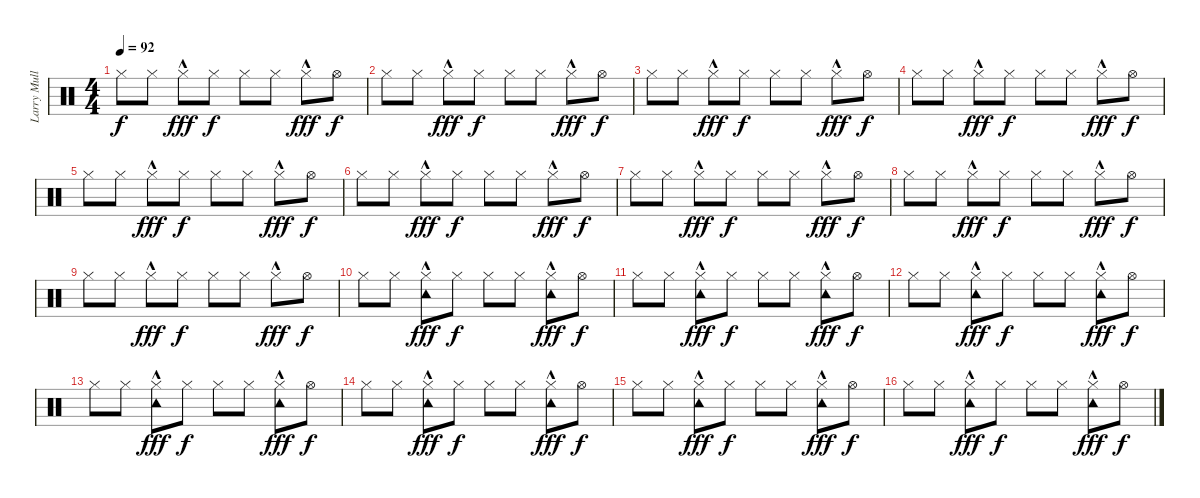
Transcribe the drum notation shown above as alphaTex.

\track ("Larry Mullen Junior" "Larry Mull") {instrument percussion}
\staff {score}
\articulation defaults
\ts (4 4)
\tempo 92
\clef neutral
\ks c "Hi-Hat (closed)".8{dy f} "Hi-Hat (closed)".8 "Hi-Hat (closed)"{hac}.8{dy fff} "Hi-Hat (closed)".8{dy f} "Hi-Hat (closed)".8 "Hi-Hat (closed)".8 "Hi-Hat (closed)"{hac}.8{dy fff} "Hi-Hat (open)".8{dy f}
|
"Hi-Hat (closed)".8 "Hi-Hat (closed)".8 "Hi-Hat (closed)"{hac}.8{dy fff} "Hi-Hat (closed)".8{dy f} "Hi-Hat (closed)".8 "Hi-Hat (closed)".8 "Hi-Hat (closed)"{hac}.8{dy fff} "Hi-Hat (open)".8{dy f} |
"Hi-Hat (closed)".8 "Hi-Hat (closed)".8 "Hi-Hat (closed)"{hac}.8{dy fff} "Hi-Hat (closed)".8{dy f} "Hi-Hat (closed)".8 "Hi-Hat (closed)".8 "Hi-Hat (closed)"{hac}.8{dy fff} "Hi-Hat (open)".8{dy f} |
"Hi-Hat (closed)".8 "Hi-Hat (closed)".8 "Hi-Hat (closed)"{hac}.8{dy fff} "Hi-Hat (closed)".8{dy f} "Hi-Hat (closed)".8 "Hi-Hat (closed)".8 "Hi-Hat (closed)"{hac}.8{dy fff} "Hi-Hat (open)".8{dy f} |
"Hi-Hat (closed)".8 "Hi-Hat (closed)".8 "Hi-Hat (closed)"{hac}.8{dy fff} "Hi-Hat (closed)".8{dy f} "Hi-Hat (closed)".8 "Hi-Hat (closed)".8 "Hi-Hat (closed)"{hac}.8{dy fff} "Hi-Hat (open)".8{dy f} |
"Hi-Hat (closed)".8 "Hi-Hat (closed)".8 "Hi-Hat (closed)"{hac}.8{dy fff} "Hi-Hat (closed)".8{dy f} "Hi-Hat (closed)".8 "Hi-Hat (closed)".8 "Hi-Hat (closed)"{hac}.8{dy fff} "Hi-Hat (open)".8{dy f} |
"Hi-Hat (closed)".8 "Hi-Hat (closed)".8 "Hi-Hat (closed)"{hac}.8{dy fff} "Hi-Hat (closed)".8{dy f} "Hi-Hat (closed)".8 "Hi-Hat (closed)".8 "Hi-Hat (closed)"{hac}.8{dy fff} "Hi-Hat (open)".8{dy f} |
"Hi-Hat (closed)".8 "Hi-Hat (closed)".8 "Hi-Hat (closed)"{hac}.8{dy fff} "Hi-Hat (closed)".8{dy f} "Hi-Hat (closed)".8 "Hi-Hat (closed)".8 "Hi-Hat (closed)"{hac}.8{dy fff} "Hi-Hat (open)".8{dy f} |
"Hi-Hat (closed)".8 "Hi-Hat (closed)".8 "Hi-Hat (closed)"{hac}.8{dy fff} "Hi-Hat (closed)".8{dy f} "Hi-Hat (closed)".8 "Hi-Hat (closed)".8 "Hi-Hat (closed)"{hac}.8{dy fff} "Hi-Hat (open)".8{dy f} |
"Hi-Hat (closed)".8 "Hi-Hat (closed)".8 ("Hi-Hat (closed)"{hac} "Tambourine (hit)").8{dy fff} "Hi-Hat (closed)".8{dy f} "Hi-Hat (closed)".8 "Hi-Hat (closed)".8 ("Hi-Hat (closed)"{hac} "Tambourine (hit)").8{dy fff} "Hi-Hat (open)".8{dy f} |
"Hi-Hat (closed)".8 "Hi-Hat (closed)".8 ("Hi-Hat (closed)"{hac} "Tambourine (hit)").8{dy fff} "Hi-Hat (closed)".8{dy f} "Hi-Hat (closed)".8 "Hi-Hat (closed)".8 ("Hi-Hat (closed)"{hac} "Tambourine (hit)").8{dy fff} "Hi-Hat (open)".8{dy f} |
"Hi-Hat (closed)".8 "Hi-Hat (closed)".8 ("Hi-Hat (closed)"{hac} "Tambourine (hit)").8{dy fff} "Hi-Hat (closed)".8{dy f} "Hi-Hat (closed)".8 "Hi-Hat (closed)".8 ("Hi-Hat (closed)"{hac} "Tambourine (hit)").8{dy fff} "Hi-Hat (open)".8{dy f} |
"Hi-Hat (closed)".8 "Hi-Hat (closed)".8 ("Hi-Hat (closed)"{hac} "Tambourine (hit)").8{dy fff} "Hi-Hat (closed)".8{dy f} "Hi-Hat (closed)".8 "Hi-Hat (closed)".8 ("Hi-Hat (closed)"{hac} "Tambourine (hit)").8{dy fff} "Hi-Hat (open)".8{dy f} |
"Hi-Hat (closed)".8 "Hi-Hat (closed)".8 ("Hi-Hat (closed)"{hac} "Tambourine (hit)").8{dy fff} "Hi-Hat (closed)".8{dy f} "Hi-Hat (closed)".8 "Hi-Hat (closed)".8 ("Hi-Hat (closed)"{hac} "Tambourine (hit)").8{dy fff} "Hi-Hat (open)".8{dy f} |
"Hi-Hat (closed)".8 "Hi-Hat (closed)".8 ("Hi-Hat (closed)"{hac} "Tambourine (hit)").8{dy fff} "Hi-Hat (closed)".8{dy f} "Hi-Hat (closed)".8 "Hi-Hat (closed)".8 ("Hi-Hat (closed)"{hac} "Tambourine (hit)").8{dy fff} "Hi-Hat (open)".8{dy f} |
"Hi-Hat (closed)".8 "Hi-Hat (closed)".8 ("Hi-Hat (closed)"{hac} "Tambourine (hit)").8{dy fff} "Hi-Hat (closed)".8{dy f} "Hi-Hat (closed)".8 "Hi-Hat (closed)".8 ("Hi-Hat (closed)"{hac} "Tambourine (hit)").8{dy fff} "Hi-Hat (open)".8{dy f}
